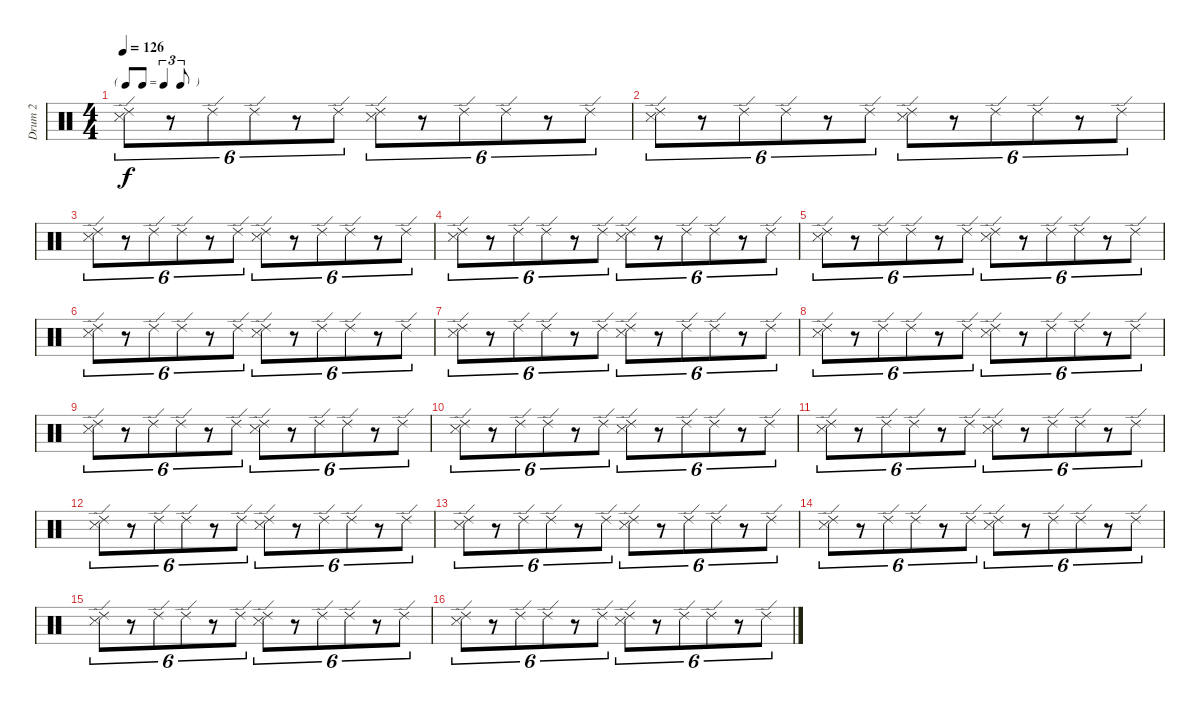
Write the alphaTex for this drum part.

\track ("Drum 2" "Drum 2") {instrument percussion}
\staff {score}
\articulation defaults
\ts (4 4)
\tf triplet8th
\tempo 126
\clef neutral
\ks c
("Ride (edge) 2" "Snare (side stick) 3").8{tu (6 4) dy f} r.8{tu (6 4)} "Ride (edge) 2".8{tu (6 4)} "Ride (edge) 2".8{tu (6 4)} r.8{tu (6 4)} "Ride (edge) 2".8{tu (6 4)} ("Ride (edge) 2" "Snare (side stick) 3").8{tu (6 4)} r.8{tu (6 4)} "Ride (edge) 2".8{tu (6 4)} "Ride (edge) 2".8{tu (6 4)} r.8{tu (6 4)} "Ride (edge) 2".8{tu (6 4)} |
("Ride (edge) 2" "Snare (side stick) 3").8{tu (6 4)} r.8{tu (6 4)} "Ride (edge) 2".8{tu (6 4)} "Ride (edge) 2".8{tu (6 4)} r.8{tu (6 4)} "Ride (edge) 2".8{tu (6 4)} ("Ride (edge) 2" "Snare (side stick) 3").8{tu (6 4)} r.8{tu (6 4)} "Ride (edge) 2".8{tu (6 4)} "Ride (edge) 2".8{tu (6 4)} r.8{tu (6 4)} "Ride (edge) 2".8{tu (6 4)} |
("Ride (edge) 2" "Snare (side stick) 3").8{tu (6 4)} r.8{tu (6 4)} "Ride (edge) 2".8{tu (6 4)} "Ride (edge) 2".8{tu (6 4)} r.8{tu (6 4)} "Ride (edge) 2".8{tu (6 4)} ("Ride (edge) 2" "Snare (side stick) 3").8{tu (6 4)} r.8{tu (6 4)} "Ride (edge) 2".8{tu (6 4)} "Ride (edge) 2".8{tu (6 4)} r.8{tu (6 4)} "Ride (edge) 2".8{tu (6 4)} |
("Ride (edge) 2" "Snare (side stick) 3").8{tu (6 4)} r.8{tu (6 4)} "Ride (edge) 2".8{tu (6 4)} "Ride (edge) 2".8{tu (6 4)} r.8{tu (6 4)} "Ride (edge) 2".8{tu (6 4)} ("Ride (edge) 2" "Snare (side stick) 3").8{tu (6 4)} r.8{tu (6 4)} "Ride (edge) 2".8{tu (6 4)} "Ride (edge) 2".8{tu (6 4)} r.8{tu (6 4)} "Ride (edge) 2".8{tu (6 4)} |
("Ride (edge) 2" "Snare (side stick) 3").8{tu (6 4)} r.8{tu (6 4)} "Ride (edge) 2".8{tu (6 4)} "Ride (edge) 2".8{tu (6 4)} r.8{tu (6 4)} "Ride (edge) 2".8{tu (6 4)} ("Ride (edge) 2" "Snare (side stick) 3").8{tu (6 4)} r.8{tu (6 4)} "Ride (edge) 2".8{tu (6 4)} "Ride (edge) 2".8{tu (6 4)} r.8{tu (6 4)} "Ride (edge) 2".8{tu (6 4)} |
("Ride (edge) 2" "Snare (side stick) 3").8{tu (6 4)} r.8{tu (6 4)} "Ride (edge) 2".8{tu (6 4)} "Ride (edge) 2".8{tu (6 4)} r.8{tu (6 4)} "Ride (edge) 2".8{tu (6 4)} ("Ride (edge) 2" "Snare (side stick) 3").8{tu (6 4)} r.8{tu (6 4)} "Ride (edge) 2".8{tu (6 4)} "Ride (edge) 2".8{tu (6 4)} r.8{tu (6 4)} "Ride (edge) 2".8{tu (6 4)} |
("Ride (edge) 2" "Snare (side stick) 3").8{tu (6 4)} r.8{tu (6 4)} "Ride (edge) 2".8{tu (6 4)} "Ride (edge) 2".8{tu (6 4)} r.8{tu (6 4)} "Ride (edge) 2".8{tu (6 4)} ("Ride (edge) 2" "Snare (side stick) 3").8{tu (6 4)} r.8{tu (6 4)} "Ride (edge) 2".8{tu (6 4)} "Ride (edge) 2".8{tu (6 4)} r.8{tu (6 4)} "Ride (edge) 2".8{tu (6 4)} |
("Ride (edge) 2" "Snare (side stick) 3").8{tu (6 4)} r.8{tu (6 4)} "Ride (edge) 2".8{tu (6 4)} "Ride (edge) 2".8{tu (6 4)} r.8{tu (6 4)} "Ride (edge) 2".8{tu (6 4)} ("Ride (edge) 2" "Snare (side stick) 3").8{tu (6 4)} r.8{tu (6 4)} "Ride (edge) 2".8{tu (6 4)} "Ride (edge) 2".8{tu (6 4)} r.8{tu (6 4)} "Ride (edge) 2".8{tu (6 4)} |
("Ride (edge) 2" "Snare (side stick) 3").8{tu (6 4)} r.8{tu (6 4)} "Ride (edge) 2".8{tu (6 4)} "Ride (edge) 2".8{tu (6 4)} r.8{tu (6 4)} "Ride (edge) 2".8{tu (6 4)} ("Ride (edge) 2" "Snare (side stick) 3").8{tu (6 4)} r.8{tu (6 4)} "Ride (edge) 2".8{tu (6 4)} "Ride (edge) 2".8{tu (6 4)} r.8{tu (6 4)} "Ride (edge) 2".8{tu (6 4)} |
("Ride (edge) 2" "Snare (side stick) 3").8{tu (6 4)} r.8{tu (6 4)} "Ride (edge) 2".8{tu (6 4)} "Ride (edge) 2".8{tu (6 4)} r.8{tu (6 4)} "Ride (edge) 2".8{tu (6 4)} ("Ride (edge) 2" "Snare (side stick) 3").8{tu (6 4)} r.8{tu (6 4)} "Ride (edge) 2".8{tu (6 4)} "Ride (edge) 2".8{tu (6 4)} r.8{tu (6 4)} "Ride (edge) 2".8{tu (6 4)} |
("Ride (edge) 2" "Snare (side stick) 3").8{tu (6 4)} r.8{tu (6 4)} "Ride (edge) 2".8{tu (6 4)} "Ride (edge) 2".8{tu (6 4)} r.8{tu (6 4)} "Ride (edge) 2".8{tu (6 4)} ("Ride (edge) 2" "Snare (side stick) 3").8{tu (6 4)} r.8{tu (6 4)} "Ride (edge) 2".8{tu (6 4)} "Ride (edge) 2".8{tu (6 4)} r.8{tu (6 4)} "Ride (edge) 2".8{tu (6 4)} |
("Ride (edge) 2" "Snare (side stick) 3").8{tu (6 4)} r.8{tu (6 4)} "Ride (edge) 2".8{tu (6 4)} "Ride (edge) 2".8{tu (6 4)} r.8{tu (6 4)} "Ride (edge) 2".8{tu (6 4)} ("Ride (edge) 2" "Snare (side stick) 3").8{tu (6 4)} r.8{tu (6 4)} "Ride (edge) 2".8{tu (6 4)} "Ride (edge) 2".8{tu (6 4)} r.8{tu (6 4)} "Ride (edge) 2".8{tu (6 4)} |
("Ride (edge) 2" "Snare (side stick) 3").8{tu (6 4)} r.8{tu (6 4)} "Ride (edge) 2".8{tu (6 4)} "Ride (edge) 2".8{tu (6 4)} r.8{tu (6 4)} "Ride (edge) 2".8{tu (6 4)} ("Ride (edge) 2" "Snare (side stick) 3").8{tu (6 4)} r.8{tu (6 4)} "Ride (edge) 2".8{tu (6 4)} "Ride (edge) 2".8{tu (6 4)} r.8{tu (6 4)} "Ride (edge) 2".8{tu (6 4)} |
("Ride (edge) 2" "Snare (side stick) 3").8{tu (6 4)} r.8{tu (6 4)} "Ride (edge) 2".8{tu (6 4)} "Ride (edge) 2".8{tu (6 4)} r.8{tu (6 4)} "Ride (edge) 2".8{tu (6 4)} ("Ride (edge) 2" "Snare (side stick) 3").8{tu (6 4)} r.8{tu (6 4)} "Ride (edge) 2".8{tu (6 4)} "Ride (edge) 2".8{tu (6 4)} r.8{tu (6 4)} "Ride (edge) 2".8{tu (6 4)} |
("Ride (edge) 2" "Snare (side stick) 3").8{tu (6 4)} r.8{tu (6 4)} "Ride (edge) 2".8{tu (6 4)} "Ride (edge) 2".8{tu (6 4)} r.8{tu (6 4)} "Ride (edge) 2".8{tu (6 4)} ("Ride (edge) 2" "Snare (side stick) 3").8{tu (6 4)} r.8{tu (6 4)} "Ride (edge) 2".8{tu (6 4)} "Ride (edge) 2".8{tu (6 4)} r.8{tu (6 4)} "Ride (edge) 2".8{tu (6 4)} |
("Ride (edge) 2" "Snare (side stick) 3").8{tu (6 4)} r.8{tu (6 4)} "Ride (edge) 2".8{tu (6 4)} "Ride (edge) 2".8{tu (6 4)} r.8{tu (6 4)} "Ride (edge) 2".8{tu (6 4)} ("Ride (edge) 2" "Snare (side stick) 3").8{tu (6 4)} r.8{tu (6 4)} "Ride (edge) 2".8{tu (6 4)} "Ride (edge) 2".8{tu (6 4)} r.8{tu (6 4)} "Ride (edge) 2".8{tu (6 4)}
